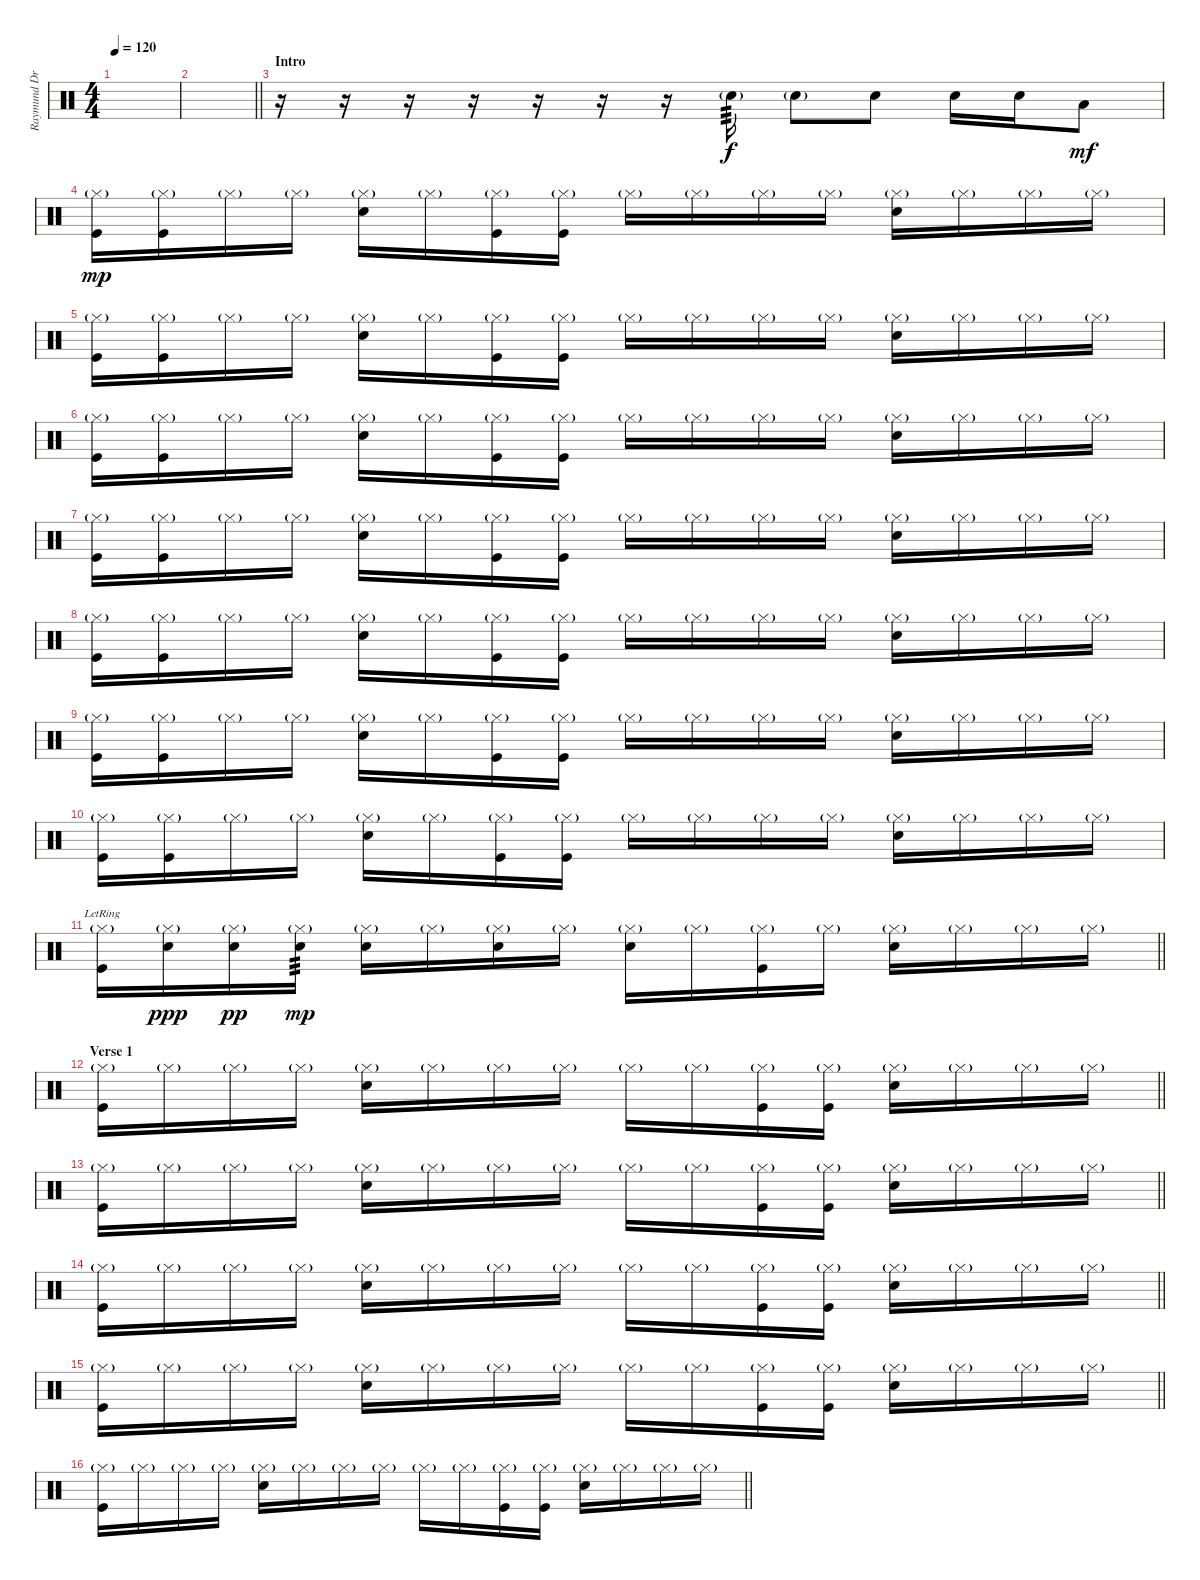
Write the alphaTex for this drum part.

\track ("Raymund Drums" "Raymund Dr") {instrument percussion}
\staff {score}
\articulation defaults
\ts (4 4)
\tempo 120
\clef neutral
\ks c
|
\barLineRight lightlight
|
\section ("" "Intro")
r.16 r.16 r.16 r.16 r.16 r.16 r.16 "Snare (hit) 2"{g}.16{tp 3} "Snare (hit) 2"{g}.8 "Snare (hit) 2".8 "Snare (hit) 2".16 "Snare (hit) 2".16{dy f} "Low Tom (hit)".8{dy mf} |
("Hi-Hat (closed)"{g} "Kick (hit)").16{dy mp} ("Hi-Hat (closed)"{g} "Kick (hit)").16 "Hi-Hat (closed)"{g}.16 "Hi-Hat (closed)"{g}.16 ("Hi-Hat (closed)"{g} "Snare (hit) 2").16 "Hi-Hat (closed)"{g}.16 ("Hi-Hat (closed)"{g} "Kick (hit)").16 ("Hi-Hat (closed)"{g} "Kick (hit)").16 "Hi-Hat (closed)"{g}.16 "Hi-Hat (closed)"{g}.16 "Hi-Hat (closed)"{g}.16 "Hi-Hat (closed)"{g}.16 ("Hi-Hat (closed)"{g} "Snare (hit) 2").16 "Hi-Hat (closed)"{g}.16 "Hi-Hat (closed)"{g}.16 "Hi-Hat (closed)"{g}.16 |
("Hi-Hat (closed)"{g} "Kick (hit)").16 ("Hi-Hat (closed)"{g} "Kick (hit)").16 "Hi-Hat (closed)"{g}.16 "Hi-Hat (closed)"{g}.16 ("Hi-Hat (closed)"{g} "Snare (hit) 2").16 "Hi-Hat (closed)"{g}.16 ("Hi-Hat (closed)"{g} "Kick (hit)").16 ("Hi-Hat (closed)"{g} "Kick (hit)").16 "Hi-Hat (closed)"{g}.16 "Hi-Hat (closed)"{g}.16 "Hi-Hat (closed)"{g}.16 "Hi-Hat (closed)"{g}.16 ("Hi-Hat (closed)"{g} "Snare (hit) 2").16 "Hi-Hat (closed)"{g}.16 "Hi-Hat (closed)"{g}.16 "Hi-Hat (closed)"{g}.16 |
("Hi-Hat (closed)"{g} "Kick (hit)").16 ("Hi-Hat (closed)"{g} "Kick (hit)").16 "Hi-Hat (closed)"{g}.16 "Hi-Hat (closed)"{g}.16 ("Hi-Hat (closed)"{g} "Snare (hit) 2").16 "Hi-Hat (closed)"{g}.16 ("Hi-Hat (closed)"{g} "Kick (hit)").16 ("Hi-Hat (closed)"{g} "Kick (hit)").16 "Hi-Hat (closed)"{g}.16 "Hi-Hat (closed)"{g}.16 "Hi-Hat (closed)"{g}.16 "Hi-Hat (closed)"{g}.16 ("Hi-Hat (closed)"{g} "Snare (hit) 2").16 "Hi-Hat (closed)"{g}.16 "Hi-Hat (closed)"{g}.16 "Hi-Hat (closed)"{g}.16 |
("Hi-Hat (closed)"{g} "Kick (hit)").16 ("Hi-Hat (closed)"{g} "Kick (hit)").16 "Hi-Hat (closed)"{g}.16 "Hi-Hat (closed)"{g}.16 ("Hi-Hat (closed)"{g} "Snare (hit) 2").16 "Hi-Hat (closed)"{g}.16 ("Hi-Hat (closed)"{g} "Kick (hit)").16 ("Hi-Hat (closed)"{g} "Kick (hit)").16 "Hi-Hat (closed)"{g}.16 "Hi-Hat (closed)"{g}.16 "Hi-Hat (closed)"{g}.16 "Hi-Hat (closed)"{g}.16 ("Hi-Hat (closed)"{g} "Snare (hit) 2").16 "Hi-Hat (closed)"{g}.16 "Hi-Hat (closed)"{g}.16 "Hi-Hat (closed)"{g}.16 |
("Hi-Hat (closed)"{g} "Kick (hit)").16 ("Hi-Hat (closed)"{g} "Kick (hit)").16 "Hi-Hat (closed)"{g}.16 "Hi-Hat (closed)"{g}.16 ("Hi-Hat (closed)"{g} "Snare (hit) 2").16 "Hi-Hat (closed)"{g}.16 ("Hi-Hat (closed)"{g} "Kick (hit)").16 ("Hi-Hat (closed)"{g} "Kick (hit)").16 "Hi-Hat (closed)"{g}.16 "Hi-Hat (closed)"{g}.16 "Hi-Hat (closed)"{g}.16 "Hi-Hat (closed)"{g}.16 ("Hi-Hat (closed)"{g} "Snare (hit) 2").16 "Hi-Hat (closed)"{g}.16 "Hi-Hat (closed)"{g}.16 "Hi-Hat (closed)"{g}.16 |
("Hi-Hat (closed)"{g} "Kick (hit)").16 ("Hi-Hat (closed)"{g} "Kick (hit)").16 "Hi-Hat (closed)"{g}.16 "Hi-Hat (closed)"{g}.16 ("Hi-Hat (closed)"{g} "Snare (hit) 2").16 "Hi-Hat (closed)"{g}.16 ("Hi-Hat (closed)"{g} "Kick (hit)").16 ("Hi-Hat (closed)"{g} "Kick (hit)").16 "Hi-Hat (closed)"{g}.16 "Hi-Hat (closed)"{g}.16 "Hi-Hat (closed)"{g}.16 "Hi-Hat (closed)"{g}.16 ("Hi-Hat (closed)"{g} "Snare (hit) 2").16 "Hi-Hat (closed)"{g}.16 "Hi-Hat (closed)"{g}.16 "Hi-Hat (closed)"{g}.16 |
("Hi-Hat (closed)"{g} "Kick (hit)").16 ("Hi-Hat (closed)"{g} "Kick (hit)").16 "Hi-Hat (closed)"{g}.16 "Hi-Hat (closed)"{g}.16 ("Hi-Hat (closed)"{g} "Snare (hit) 2").16 "Hi-Hat (closed)"{g}.16 ("Hi-Hat (closed)"{g} "Kick (hit)").16 ("Hi-Hat (closed)"{g} "Kick (hit)").16 "Hi-Hat (closed)"{g}.16 "Hi-Hat (closed)"{g}.16 "Hi-Hat (closed)"{g}.16 "Hi-Hat (closed)"{g}.16 ("Hi-Hat (closed)"{g} "Snare (hit) 2").16 "Hi-Hat (closed)"{g}.16 "Hi-Hat (closed)"{g}.16 "Hi-Hat (closed)"{g}.16 |
\barLineRight lightlight
("Hi-Hat (closed)"{g} "Kick (hit)"{lr}).16 ("Hi-Hat (closed)"{g} "Snare (hit) 2").16{dy ppp} ("Hi-Hat (closed)"{g} "Snare (hit) 2").16{dy pp} ("Hi-Hat (closed)"{g} "Snare (hit) 2").16{tp 3 dy mp} ("Hi-Hat (closed)"{g} "Snare (hit) 2").16 "Hi-Hat (closed)"{g}.16 ("Hi-Hat (closed)"{g} "Snare (hit) 2").16 "Hi-Hat (closed)"{g}.16 ("Hi-Hat (closed)"{g} "Snare (hit) 2").16 "Hi-Hat (closed)"{g}.16 ("Hi-Hat (closed)"{g} "Kick (hit)").16 "Hi-Hat (closed)"{g}.16 ("Hi-Hat (closed)"{g} "Snare (hit) 2").16 "Hi-Hat (closed)"{g}.16 "Hi-Hat (closed)"{g}.16 "Hi-Hat (closed)"{g}.16 |
\section ("" "Verse 1")
\barLineRight lightlight
("Hi-Hat (closed)"{g} "Kick (hit)").16 "Hi-Hat (closed)"{g}.16 "Hi-Hat (closed)"{g}.16 "Hi-Hat (closed)"{g}.16 ("Hi-Hat (closed)"{g} "Snare (hit) 2").16 "Hi-Hat (closed)"{g}.16 "Hi-Hat (closed)"{g}.16 "Hi-Hat (closed)"{g}.16 "Hi-Hat (closed)"{g}.16 "Hi-Hat (closed)"{g}.16 ("Hi-Hat (closed)"{g} "Kick (hit)").16 ("Hi-Hat (closed)"{g} "Kick (hit)").16 ("Hi-Hat (closed)"{g} "Snare (hit) 2").16 "Hi-Hat (closed)"{g}.16 "Hi-Hat (closed)"{g}.16 "Hi-Hat (closed)"{g}.16 |
\barLineRight lightlight
("Hi-Hat (closed)"{g} "Kick (hit)").16 "Hi-Hat (closed)"{g}.16 "Hi-Hat (closed)"{g}.16 "Hi-Hat (closed)"{g}.16 ("Hi-Hat (closed)"{g} "Snare (hit) 2").16 "Hi-Hat (closed)"{g}.16 "Hi-Hat (closed)"{g}.16 "Hi-Hat (closed)"{g}.16 "Hi-Hat (closed)"{g}.16 "Hi-Hat (closed)"{g}.16 ("Hi-Hat (closed)"{g} "Kick (hit)").16 ("Hi-Hat (closed)"{g} "Kick (hit)").16 ("Hi-Hat (closed)"{g} "Snare (hit) 2").16 "Hi-Hat (closed)"{g}.16 "Hi-Hat (closed)"{g}.16 "Hi-Hat (closed)"{g}.16 |
\barLineRight lightlight
("Hi-Hat (closed)"{g} "Kick (hit)").16 "Hi-Hat (closed)"{g}.16 "Hi-Hat (closed)"{g}.16 "Hi-Hat (closed)"{g}.16 ("Hi-Hat (closed)"{g} "Snare (hit) 2").16 "Hi-Hat (closed)"{g}.16 "Hi-Hat (closed)"{g}.16 "Hi-Hat (closed)"{g}.16 "Hi-Hat (closed)"{g}.16 "Hi-Hat (closed)"{g}.16 ("Hi-Hat (closed)"{g} "Kick (hit)").16 ("Hi-Hat (closed)"{g} "Kick (hit)").16 ("Hi-Hat (closed)"{g} "Snare (hit) 2").16 "Hi-Hat (closed)"{g}.16 "Hi-Hat (closed)"{g}.16 "Hi-Hat (closed)"{g}.16 |
\barLineRight lightlight
("Hi-Hat (closed)"{g} "Kick (hit)").16 "Hi-Hat (closed)"{g}.16 "Hi-Hat (closed)"{g}.16 "Hi-Hat (closed)"{g}.16 ("Hi-Hat (closed)"{g} "Snare (hit) 2").16 "Hi-Hat (closed)"{g}.16 "Hi-Hat (closed)"{g}.16 "Hi-Hat (closed)"{g}.16 "Hi-Hat (closed)"{g}.16 "Hi-Hat (closed)"{g}.16 ("Hi-Hat (closed)"{g} "Kick (hit)").16 ("Hi-Hat (closed)"{g} "Kick (hit)").16 ("Hi-Hat (closed)"{g} "Snare (hit) 2").16 "Hi-Hat (closed)"{g}.16 "Hi-Hat (closed)"{g}.16 "Hi-Hat (closed)"{g}.16 |
\barLineRight lightlight
("Hi-Hat (closed)"{g} "Kick (hit)").16 "Hi-Hat (closed)"{g}.16 "Hi-Hat (closed)"{g}.16 "Hi-Hat (closed)"{g}.16 ("Hi-Hat (closed)"{g} "Snare (hit) 2").16 "Hi-Hat (closed)"{g}.16 "Hi-Hat (closed)"{g}.16 "Hi-Hat (closed)"{g}.16 "Hi-Hat (closed)"{g}.16 "Hi-Hat (closed)"{g}.16 ("Hi-Hat (closed)"{g} "Kick (hit)").16 ("Hi-Hat (closed)"{g} "Kick (hit)").16 ("Hi-Hat (closed)"{g} "Snare (hit) 2").16 "Hi-Hat (closed)"{g}.16 "Hi-Hat (closed)"{g}.16 "Hi-Hat (closed)"{g}.16
